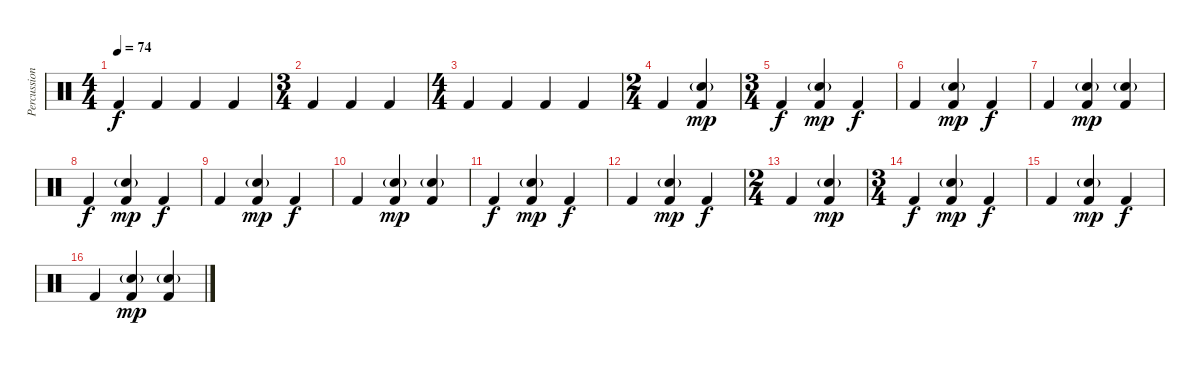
\track ("Percussion" "Percussion") {instrument percussion}
\staff {score}
\articulation defaults
\ts (4 4)
\tempo 74
\clef neutral
\ks c "Kick (hit) 2".4{dy f} "Kick (hit) 2".4 "Kick (hit) 2".4 "Kick (hit) 2".4
|
\ts (3 4)
"Kick (hit) 2".4 "Kick (hit) 2".4 "Kick (hit) 2".4 |
\ts (4 4)
"Kick (hit) 2".4 "Kick (hit) 2".4 "Kick (hit) 2".4 "Kick (hit) 2".4 |
\ts (2 4)
"Kick (hit) 2".4 ("Snare (hit) 2"{g} "Kick (hit) 2").4{dy mp} |
\ts (3 4)
"Kick (hit) 2".4{dy f} ("Snare (hit) 2"{g} "Kick (hit) 2").4{dy mp} "Kick (hit) 2".4{dy f} |
"Kick (hit) 2".4 ("Snare (hit) 2"{g} "Kick (hit) 2").4{dy mp} "Kick (hit) 2".4{dy f} |
"Kick (hit) 2".4 ("Snare (hit) 2"{g} "Kick (hit) 2").4{dy mp} ("Snare (hit) 2"{g} "Kick (hit) 2").4 |
"Kick (hit) 2".4{dy f} ("Snare (hit) 2"{g} "Kick (hit) 2").4{dy mp} "Kick (hit) 2".4{dy f} |
"Kick (hit) 2".4 ("Snare (hit) 2"{g} "Kick (hit) 2").4{dy mp} "Kick (hit) 2".4{dy f} |
"Kick (hit) 2".4 ("Snare (hit) 2"{g} "Kick (hit) 2").4{dy mp} ("Snare (hit) 2"{g} "Kick (hit) 2").4 |
"Kick (hit) 2".4{dy f} ("Snare (hit) 2"{g} "Kick (hit) 2").4{dy mp} "Kick (hit) 2".4{dy f} |
"Kick (hit) 2".4 ("Snare (hit) 2"{g} "Kick (hit) 2").4{dy mp} "Kick (hit) 2".4{dy f} |
\ts (2 4)
"Kick (hit) 2".4 ("Snare (hit) 2"{g} "Kick (hit) 2").4{dy mp} |
\ts (3 4)
"Kick (hit) 2".4{dy f} ("Snare (hit) 2"{g} "Kick (hit) 2").4{dy mp} "Kick (hit) 2".4{dy f} |
"Kick (hit) 2".4 ("Snare (hit) 2"{g} "Kick (hit) 2").4{dy mp} "Kick (hit) 2".4{dy f} |
"Kick (hit) 2".4 ("Snare (hit) 2"{g} "Kick (hit) 2").4{dy mp} ("Snare (hit) 2"{g} "Kick (hit) 2").4
